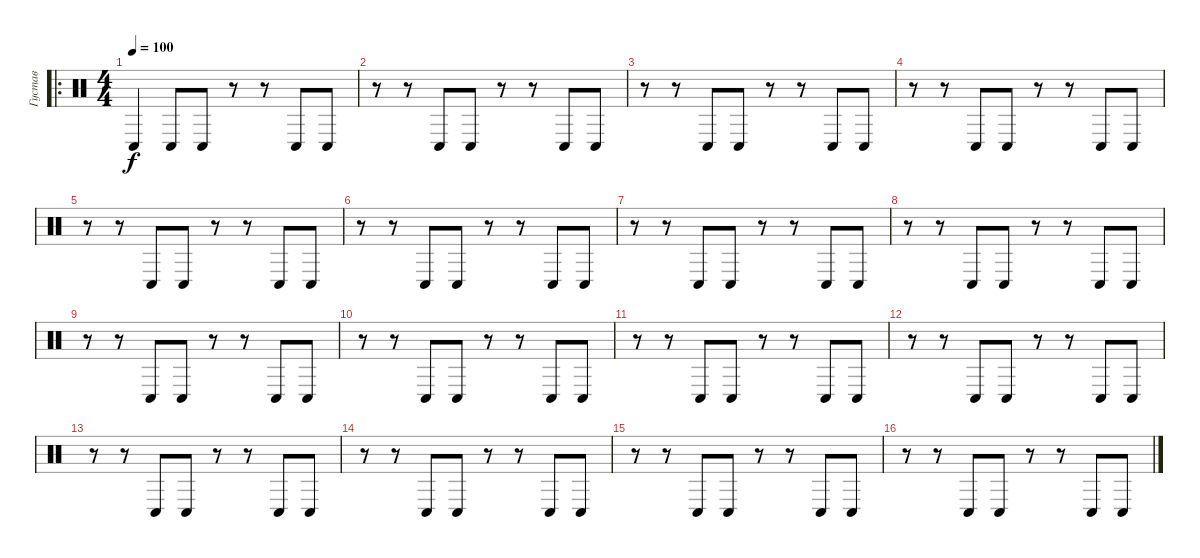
\track ("Густав" "Густав") {instrument percussion}
\staff {score}
\articulation defaults
\ro
\ts (4 4)
\tempo 100
\clef neutral
\ks c "Conga low (hit)".4{dy f} "Conga low (hit)".8 "Conga low (hit)".8
r.8 r.8 "Conga low (hit)".8 "Conga low (hit)".8 |
r.8 r.8 "Conga low (hit)".8 "Conga low (hit)".8 r.8 r.8 "Conga low (hit)".8 "Conga low (hit)".8 |
r.8 r.8 "Conga low (hit)".8 "Conga low (hit)".8 r.8 r.8 "Conga low (hit)".8 "Conga low (hit)".8 |
r.8 r.8 "Conga low (hit)".8 "Conga low (hit)".8 r.8 r.8 "Conga low (hit)".8 "Conga low (hit)".8 |
r.8 r.8 "Conga low (hit)".8 "Conga low (hit)".8 r.8 r.8 "Conga low (hit)".8 "Conga low (hit)".8 |
r.8 r.8 "Conga low (hit)".8 "Conga low (hit)".8 r.8 r.8 "Conga low (hit)".8 "Conga low (hit)".8 |
r.8 r.8 "Conga low (hit)".8 "Conga low (hit)".8 r.8 r.8 "Conga low (hit)".8 "Conga low (hit)".8 |
r.8 r.8 "Conga low (hit)".8 "Conga low (hit)".8 r.8 r.8 "Conga low (hit)".8 "Conga low (hit)".8 |
r.8 r.8 "Conga low (hit)".8 "Conga low (hit)".8 r.8 r.8 "Conga low (hit)".8 "Conga low (hit)".8 |
r.8 r.8 "Conga low (hit)".8 "Conga low (hit)".8 r.8 r.8 "Conga low (hit)".8 "Conga low (hit)".8 |
r.8 r.8 "Conga low (hit)".8 "Conga low (hit)".8 r.8 r.8 "Conga low (hit)".8 "Conga low (hit)".8 |
r.8 r.8 "Conga low (hit)".8 "Conga low (hit)".8 r.8 r.8 "Conga low (hit)".8 "Conga low (hit)".8 |
r.8 r.8 "Conga low (hit)".8 "Conga low (hit)".8 r.8 r.8 "Conga low (hit)".8 "Conga low (hit)".8 |
r.8 r.8 "Conga low (hit)".8 "Conga low (hit)".8 r.8 r.8 "Conga low (hit)".8 "Conga low (hit)".8 |
r.8 r.8 "Conga low (hit)".8 "Conga low (hit)".8 r.8 r.8 "Conga low (hit)".8 "Conga low (hit)".8 |
r.8 r.8 "Conga low (hit)".8 "Conga low (hit)".8 r.8 r.8 "Conga low (hit)".8 "Conga low (hit)".8
